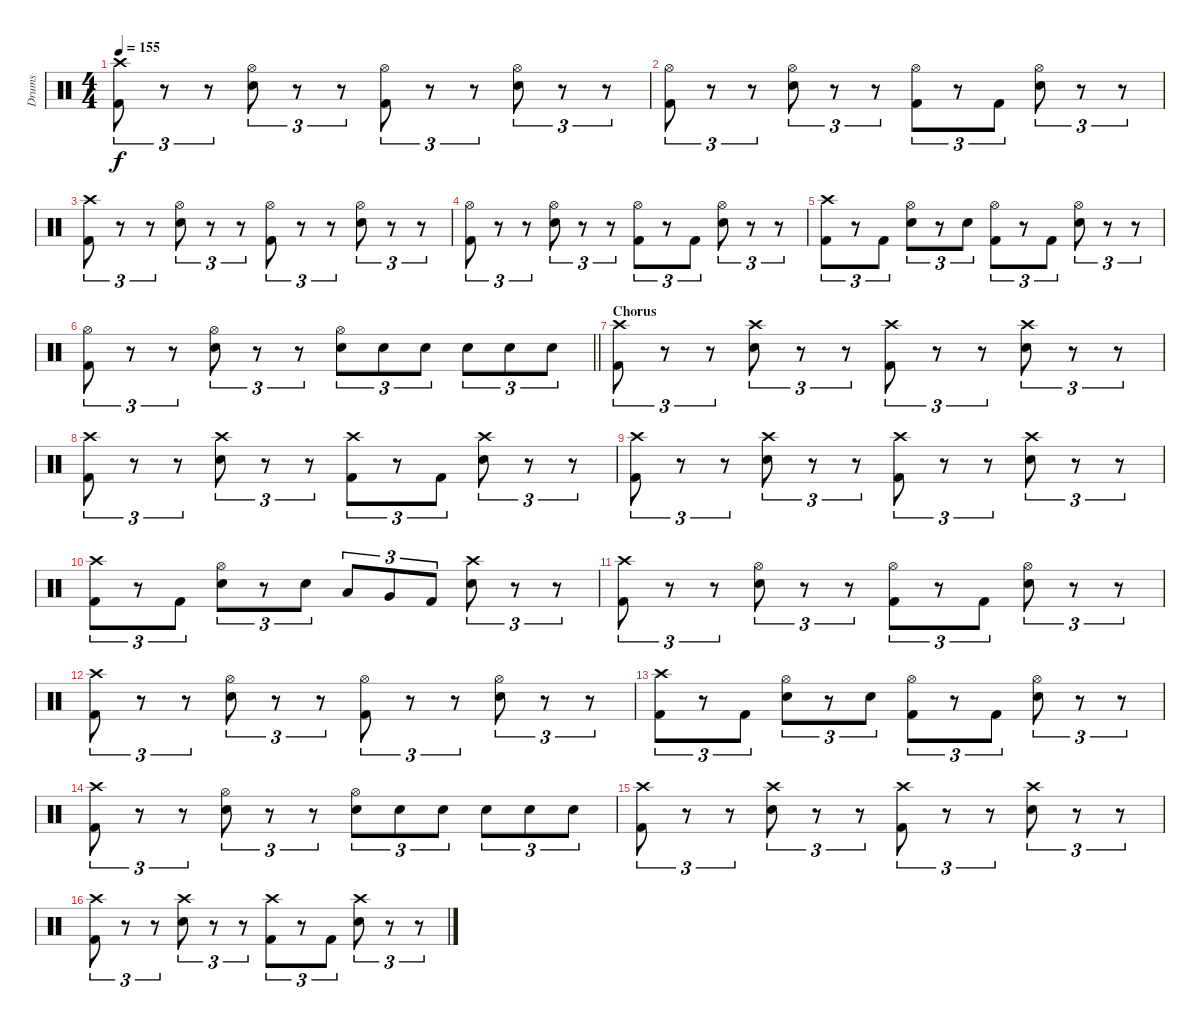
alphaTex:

\track ("Drums" "Drums") {instrument percussion}
\staff {score}
\articulation defaults
\ts (4 4)
\tempo 155
\clef neutral
\ks c
("Crash high (hit)" "Kick (hit) 2").8{tu (3 2) dy f} r.8{tu (3 2)} r.8{tu (3 2)} ("Hi-Hat (open)" "Snare (hit) 2").8{tu (3 2)} r.8{tu (3 2)} r.8{tu (3 2)} ("Hi-Hat (open)" "Kick (hit) 2").8{tu (3 2)} r.8{tu (3 2)} r.8{tu (3 2)} ("Hi-Hat (open)" "Snare (hit) 2").8{tu (3 2)} r.8{tu (3 2)} r.8{tu (3 2)} |
("Hi-Hat (open)" "Kick (hit) 2").8{tu (3 2)} r.8{tu (3 2)} r.8{tu (3 2)} ("Hi-Hat (open)" "Snare (hit) 2").8{tu (3 2)} r.8{tu (3 2)} r.8{tu (3 2)} ("Hi-Hat (open)" "Kick (hit) 2").8{tu (3 2)} r.8{tu (3 2)} "Kick (hit) 2".8{tu (3 2)} ("Hi-Hat (open)" "Snare (hit) 2").8{tu (3 2)} r.8{tu (3 2)} r.8{tu (3 2)} |
("Crash high (hit)" "Kick (hit) 2").8{tu (3 2)} r.8{tu (3 2)} r.8{tu (3 2)} ("Hi-Hat (open)" "Snare (hit) 2").8{tu (3 2)} r.8{tu (3 2)} r.8{tu (3 2)} ("Hi-Hat (open)" "Kick (hit) 2").8{tu (3 2)} r.8{tu (3 2)} r.8{tu (3 2)} ("Hi-Hat (open)" "Snare (hit) 2").8{tu (3 2)} r.8{tu (3 2)} r.8{tu (3 2)} |
("Hi-Hat (open)" "Kick (hit) 2").8{tu (3 2)} r.8{tu (3 2)} r.8{tu (3 2)} ("Hi-Hat (open)" "Snare (hit) 2").8{tu (3 2)} r.8{tu (3 2)} r.8{tu (3 2)} ("Hi-Hat (open)" "Kick (hit) 2").8{tu (3 2)} r.8{tu (3 2)} "Kick (hit) 2".8{tu (3 2)} ("Hi-Hat (open)" "Snare (hit) 2").8{tu (3 2)} r.8{tu (3 2)} r.8{tu (3 2)} |
("Crash high (hit)" "Kick (hit) 2").8{tu (3 2)} r.8{tu (3 2)} "Kick (hit) 2".8{tu (3 2)} ("Hi-Hat (open)" "Snare (hit) 2").8{tu (3 2)} r.8{tu (3 2)} "Snare (hit) 2".8{tu (3 2)} ("Hi-Hat (open)" "Kick (hit) 2").8{tu (3 2)} r.8{tu (3 2)} "Kick (hit) 2".8{tu (3 2)} ("Hi-Hat (open)" "Snare (hit) 2").8{tu (3 2)} r.8{tu (3 2)} r.8{tu (3 2)} |
\barLineRight lightlight
("Hi-Hat (open)" "Kick (hit) 2").8{tu (3 2)} r.8{tu (3 2)} r.8{tu (3 2)} ("Hi-Hat (open)" "Snare (hit) 2").8{tu (3 2)} r.8{tu (3 2)} r.8{tu (3 2)} ("Hi-Hat (open)" "Snare (hit) 2").8{tu (3 2)} "Snare (hit) 2".8{tu (3 2)} "Snare (hit) 2".8{tu (3 2)} "Snare (hit) 2".8{tu (3 2)} "Snare (hit) 2".8{tu (3 2)} "Snare (hit) 2".8{tu (3 2)} |
\section ("" "Chorus")
("Crash high (hit)" "Kick (hit) 2").8{tu (3 2)} r.8{tu (3 2)} r.8{tu (3 2)} ("Crash high (hit)" "Snare (hit) 2").8{tu (3 2)} r.8{tu (3 2)} r.8{tu (3 2)} ("Crash high (hit)" "Kick (hit) 2").8{tu (3 2)} r.8{tu (3 2)} r.8{tu (3 2)} ("Crash high (hit)" "Snare (hit) 2").8{tu (3 2)} r.8{tu (3 2)} r.8{tu (3 2)} |
("Crash high (hit)" "Kick (hit) 2").8{tu (3 2)} r.8{tu (3 2)} r.8{tu (3 2)} ("Crash high (hit)" "Snare (hit) 2").8{tu (3 2)} r.8{tu (3 2)} r.8{tu (3 2)} ("Crash high (hit)" "Kick (hit) 2").8{tu (3 2)} r.8{tu (3 2)} "Kick (hit) 2".8{tu (3 2)} ("Crash high (hit)" "Snare (hit) 2").8{tu (3 2)} r.8{tu (3 2)} r.8{tu (3 2)} |
("Crash high (hit)" "Kick (hit) 2").8{tu (3 2)} r.8{tu (3 2)} r.8{tu (3 2)} ("Crash high (hit)" "Snare (hit) 2").8{tu (3 2)} r.8{tu (3 2)} r.8{tu (3 2)} ("Crash high (hit)" "Kick (hit) 2").8{tu (3 2)} r.8{tu (3 2)} r.8{tu (3 2)} ("Crash high (hit)" "Snare (hit) 2").8{tu (3 2)} r.8{tu (3 2)} r.8{tu (3 2)} |
("Crash high (hit)" "Kick (hit) 2").8{tu (3 2)} r.8{tu (3 2)} "Kick (hit) 2".8{tu (3 2)} ("Hi-Hat (open)" "Snare (hit) 2").8{tu (3 2)} r.8{tu (3 2)} "Snare (hit) 2".8{tu (3 2)} "Low Tom (hit)".8{tu (3 2)} "Very Low Tom (hit)".8{tu (3 2)} "Kick (hit) 2".8{tu (3 2)} ("Crash high (hit)" "Snare (hit) 2").8{tu (3 2)} r.8{tu (3 2)} r.8{tu (3 2)} |
("Crash high (hit)" "Kick (hit) 2").8{tu (3 2)} r.8{tu (3 2)} r.8{tu (3 2)} ("Hi-Hat (open)" "Snare (hit) 2").8{tu (3 2)} r.8{tu (3 2)} r.8{tu (3 2)} ("Hi-Hat (open)" "Kick (hit) 2").8{tu (3 2)} r.8{tu (3 2)} "Kick (hit) 2".8{tu (3 2)} ("Hi-Hat (open)" "Snare (hit) 2").8{tu (3 2)} r.8{tu (3 2)} r.8{tu (3 2)} |
("Crash high (hit)" "Kick (hit) 2").8{tu (3 2)} r.8{tu (3 2)} r.8{tu (3 2)} ("Hi-Hat (open)" "Snare (hit) 2").8{tu (3 2)} r.8{tu (3 2)} r.8{tu (3 2)} ("Hi-Hat (open)" "Kick (hit) 2").8{tu (3 2)} r.8{tu (3 2)} r.8{tu (3 2)} ("Hi-Hat (open)" "Snare (hit) 2").8{tu (3 2)} r.8{tu (3 2)} r.8{tu (3 2)} |
("Crash high (hit)" "Kick (hit) 2").8{tu (3 2)} r.8{tu (3 2)} "Kick (hit) 2".8{tu (3 2)} ("Hi-Hat (open)" "Snare (hit) 2").8{tu (3 2)} r.8{tu (3 2)} "Snare (hit) 2".8{tu (3 2)} ("Hi-Hat (open)" "Kick (hit) 2").8{tu (3 2)} r.8{tu (3 2)} "Kick (hit) 2".8{tu (3 2)} ("Hi-Hat (open)" "Snare (hit) 2").8{tu (3 2)} r.8{tu (3 2)} r.8{tu (3 2)} |
("Crash high (hit)" "Kick (hit) 2").8{tu (3 2)} r.8{tu (3 2)} r.8{tu (3 2)} ("Hi-Hat (open)" "Snare (hit) 2").8{tu (3 2)} r.8{tu (3 2)} r.8{tu (3 2)} ("Hi-Hat (open)" "Snare (hit) 2").8{tu (3 2)} "Snare (hit) 2".8{tu (3 2)} "Snare (hit) 2".8{tu (3 2)} "Snare (hit) 2".8{tu (3 2)} "Snare (hit) 2".8{tu (3 2)} "Snare (hit) 2".8{tu (3 2)} |
("Crash high (hit)" "Kick (hit) 2").8{tu (3 2)} r.8{tu (3 2)} r.8{tu (3 2)} ("Crash high (hit)" "Snare (hit) 2").8{tu (3 2)} r.8{tu (3 2)} r.8{tu (3 2)} ("Crash high (hit)" "Kick (hit) 2").8{tu (3 2)} r.8{tu (3 2)} r.8{tu (3 2)} ("Crash high (hit)" "Snare (hit) 2").8{tu (3 2)} r.8{tu (3 2)} r.8{tu (3 2)} |
("Crash high (hit)" "Kick (hit) 2").8{tu (3 2)} r.8{tu (3 2)} r.8{tu (3 2)} ("Crash high (hit)" "Snare (hit) 2").8{tu (3 2)} r.8{tu (3 2)} r.8{tu (3 2)} ("Crash high (hit)" "Kick (hit) 2").8{tu (3 2)} r.8{tu (3 2)} "Kick (hit) 2".8{tu (3 2)} ("Crash high (hit)" "Snare (hit) 2").8{tu (3 2)} r.8{tu (3 2)} r.8{tu (3 2)}
